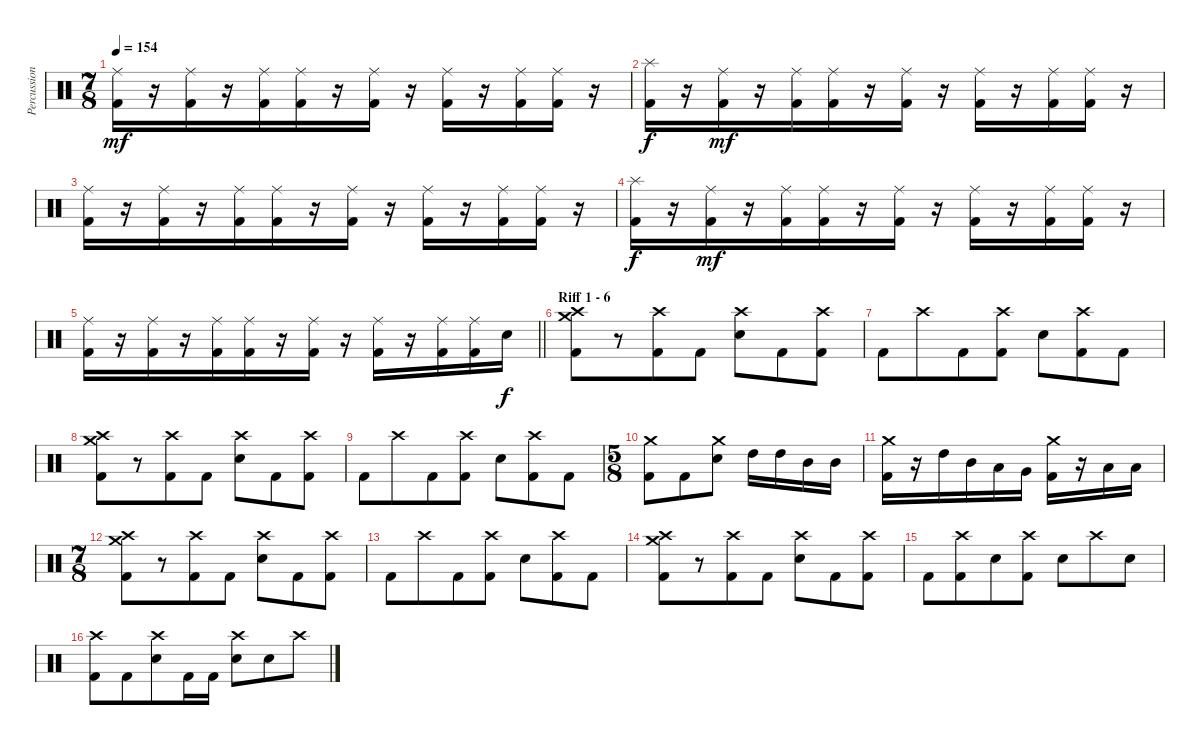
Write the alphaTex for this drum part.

\track ("Percussions" "Percussion") {instrument percussion}
\staff {score}
\articulation defaults
\ts (7 8)
\tempo 154
\clef neutral
\ks c
("Ride (middle)" "Kick (hit) 2").16{dy mf} r.16 ("Ride (middle)" "Kick (hit) 2").16 r.16 ("Ride (middle)" "Kick (hit) 2").16 ("Ride (middle)" "Kick (hit) 2").16 r.16 ("Ride (middle)" "Kick (hit) 2").16 r.16 ("Ride (middle)" "Kick (hit) 2").16 r.16 ("Ride (middle)" "Kick (hit) 2").16 ("Ride (middle)" "Kick (hit) 2").16 r.16 |
("Splash (hit)" "Kick (hit) 2").16{dy f} r.16 ("Ride (middle)" "Kick (hit) 2").16{dy mf} r.16 ("Ride (middle)" "Kick (hit) 2").16 ("Ride (middle)" "Kick (hit) 2").16 r.16 ("Ride (middle)" "Kick (hit) 2").16 r.16 ("Ride (middle)" "Kick (hit) 2").16 r.16 ("Ride (middle)" "Kick (hit) 2").16 ("Ride (middle)" "Kick (hit) 2").16 r.16 |
("Ride (middle)" "Kick (hit) 2").16 r.16 ("Ride (middle)" "Kick (hit) 2").16 r.16 ("Ride (middle)" "Kick (hit) 2").16 ("Ride (middle)" "Kick (hit) 2").16 r.16 ("Ride (middle)" "Kick (hit) 2").16 r.16 ("Ride (middle)" "Kick (hit) 2").16 r.16 ("Ride (middle)" "Kick (hit) 2").16 ("Ride (middle)" "Kick (hit) 2").16 r.16 |
("Splash (hit)" "Kick (hit) 2").16{dy f} r.16 ("Ride (middle)" "Kick (hit) 2").16{dy mf} r.16 ("Ride (middle)" "Kick (hit) 2").16 ("Ride (middle)" "Kick (hit) 2").16 r.16 ("Ride (middle)" "Kick (hit) 2").16 r.16 ("Ride (middle)" "Kick (hit) 2").16 r.16 ("Ride (middle)" "Kick (hit) 2").16 ("Ride (middle)" "Kick (hit) 2").16 r.16 |
\barLineRight lightlight
("Ride (middle)" "Kick (hit) 2").16 r.16 ("Ride (middle)" "Kick (hit) 2").16 r.16 ("Ride (middle)" "Kick (hit) 2").16 ("Ride (middle)" "Kick (hit) 2").16 r.16 ("Ride (middle)" "Kick (hit) 2").16 r.16 ("Ride (middle)" "Kick (hit) 2").16 r.16 ("Ride (middle)" "Kick (hit) 2").16 ("Ride (middle)" "Kick (hit) 2").16 "Electric Snare (hit)".16{dy f} |
\section ("" "Riff 1 - 6 ")
("Crash high (hit)" "Crash medium (hit)" "Kick (hit) 2").8 r.8 ("Crash high (hit)" "Kick (hit) 2").8 "Kick (hit) 2".8 ("Crash high (hit)" "Electric Snare (hit)").8 "Kick (hit) 2".8 ("Crash high (hit)" "Kick (hit) 2").8 |
"Kick (hit) 2".8 "Crash high (hit)".8 "Kick (hit) 2".8 ("Crash high (hit)" "Kick (hit) 2").8 "Electric Snare (hit)".8 ("Crash high (hit)" "Kick (hit) 2").8 "Kick (hit) 2".8 |
("Crash high (hit)" "Crash medium (hit)" "Kick (hit) 2").8 r.8 ("Crash high (hit)" "Kick (hit) 2").8 "Kick (hit) 2".8 ("Crash high (hit)" "Electric Snare (hit)").8 "Kick (hit) 2".8 ("Crash high (hit)" "Kick (hit) 2").8 |
"Kick (hit) 2".8 "Crash high (hit)".8 "Kick (hit) 2".8 ("Crash high (hit)" "Kick (hit) 2").8 "Electric Snare (hit)".8 ("Crash high (hit)" "Kick (hit) 2").8 "Kick (hit) 2".8 |
\ts (5 8)
("Crash medium (hit)" "Kick (hit) 2").8 "Kick (hit) 2".8 ("Crash medium (hit)" "Electric Snare (hit)").8 "High Tom (hit)".16 "High Tom (hit)".16 "Mid Tom (hit)".16 "Mid Tom (hit)".16 |
("Crash medium (hit)" "Kick (hit) 2").16 r.16 "High Tom (hit)".16 "Mid Tom (hit)".16 "Low Tom (hit)".16 "Very Low Tom (hit)".16 ("Crash medium (hit)" "Kick (hit) 2").16 r.16 "Low Tom (hit)".16 "Low Tom (hit)".16 |
\ts (7 8)
("Crash high (hit)" "Crash medium (hit)" "Kick (hit) 2").8 r.8 ("Crash high (hit)" "Kick (hit) 2").8 "Kick (hit) 2".8 ("Crash high (hit)" "Electric Snare (hit)").8 "Kick (hit) 2".8 ("Crash high (hit)" "Kick (hit) 2").8 |
"Kick (hit) 2".8 "Crash high (hit)".8 "Kick (hit) 2".8 ("Crash high (hit)" "Kick (hit) 2").8 "Electric Snare (hit)".8 ("Crash high (hit)" "Kick (hit) 2").8 "Kick (hit) 2".8 |
("Crash high (hit)" "Crash medium (hit)" "Kick (hit) 2").8 r.8 ("Crash high (hit)" "Kick (hit) 2").8 "Kick (hit) 2".8 ("Crash high (hit)" "Electric Snare (hit)").8 "Kick (hit) 2".8 ("Crash high (hit)" "Kick (hit) 2").8 |
"Kick (hit) 2".8 ("Crash high (hit)" "Kick (hit) 2").8 "Electric Snare (hit)".8 ("Crash high (hit)" "Kick (hit) 2").8 "Electric Snare (hit)".8 "Crash high (hit)".8 "Electric Snare (hit)".8 |
("Crash high (hit)" "Kick (hit) 2").8 "Kick (hit) 2".8 ("Crash high (hit)" "Electric Snare (hit)").8 "Kick (hit) 2".16 "Kick (hit) 2".16 ("Crash high (hit)" "Electric Snare (hit)").8 "Electric Snare (hit)".8 "Crash high (hit)".8
